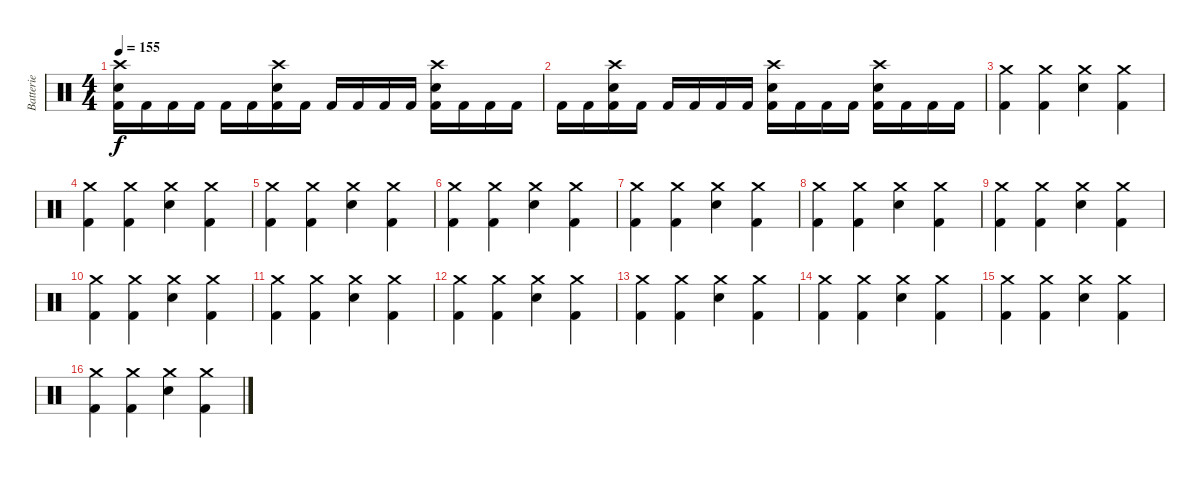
\track ("Batterie" "Batterie") {instrument percussion}
\staff {score}
\articulation defaults
\ts (4 4)
\tempo 155
\clef neutral
\ks c
("Crash high (hit)" "Electric Snare (hit)" "Kick (hit) 2").16{dy f} "Kick (hit) 2".16 "Kick (hit) 2".16 "Kick (hit) 2".16 "Kick (hit) 2".16 "Kick (hit) 2".16 ("Crash high (hit)" "Electric Snare (hit)" "Kick (hit) 2").16 "Kick (hit) 2".16 "Kick (hit) 2".16 "Kick (hit) 2".16 "Kick (hit) 2".16 "Kick (hit) 2".16 ("Crash high (hit)" "Electric Snare (hit)" "Kick (hit) 2").16 "Kick (hit) 2".16 "Kick (hit) 2".16 "Kick (hit) 2".16 |
"Kick (hit) 2".16 "Kick (hit) 2".16 ("Crash high (hit)" "Electric Snare (hit)" "Kick (hit) 2").16 "Kick (hit) 2".16 "Kick (hit) 2".16 "Kick (hit) 2".16 "Kick (hit) 2".16 "Kick (hit) 2".16 ("Crash high (hit)" "Electric Snare (hit)" "Kick (hit) 2").16 "Kick (hit) 2".16 "Kick (hit) 2".16 "Kick (hit) 2".16 ("Crash high (hit)" "Electric Snare (hit)" "Kick (hit) 2").16 "Kick (hit) 2".16 "Kick (hit) 2".16 "Kick (hit) 2".16 |
\section ("" "")
("Crash medium (hit)" "Kick (hit) 2").4 ("Crash medium (hit)" "Kick (hit) 2").4 ("Crash medium (hit)" "Electric Snare (hit)").4 ("Crash medium (hit)" "Kick (hit) 2").4 |
("Crash medium (hit)" "Kick (hit) 2").4 ("Crash medium (hit)" "Kick (hit) 2").4 ("Crash medium (hit)" "Electric Snare (hit)").4 ("Crash medium (hit)" "Kick (hit) 2").4 |
("Crash medium (hit)" "Kick (hit) 2").4 ("Crash medium (hit)" "Kick (hit) 2").4 ("Crash medium (hit)" "Electric Snare (hit)").4 ("Crash medium (hit)" "Kick (hit) 2").4 |
("Crash medium (hit)" "Kick (hit) 2").4 ("Crash medium (hit)" "Kick (hit) 2").4 ("Crash medium (hit)" "Electric Snare (hit)").4 ("Crash medium (hit)" "Kick (hit) 2").4 |
("Crash medium (hit)" "Kick (hit) 2").4 ("Crash medium (hit)" "Kick (hit) 2").4 ("Crash medium (hit)" "Electric Snare (hit)").4 ("Crash medium (hit)" "Kick (hit) 2").4 |
("Crash medium (hit)" "Kick (hit) 2").4 ("Crash medium (hit)" "Kick (hit) 2").4 ("Crash medium (hit)" "Electric Snare (hit)").4 ("Crash medium (hit)" "Kick (hit) 2").4 |
("Crash medium (hit)" "Kick (hit) 2").4 ("Crash medium (hit)" "Kick (hit) 2").4 ("Crash medium (hit)" "Electric Snare (hit)").4 ("Crash medium (hit)" "Kick (hit) 2").4 |
("Crash medium (hit)" "Kick (hit) 2").4 ("Crash medium (hit)" "Kick (hit) 2").4 ("Crash medium (hit)" "Electric Snare (hit)").4 ("Crash medium (hit)" "Kick (hit) 2").4 |
("Crash medium (hit)" "Kick (hit) 2").4 ("Crash medium (hit)" "Kick (hit) 2").4 ("Crash medium (hit)" "Electric Snare (hit)").4 ("Crash medium (hit)" "Kick (hit) 2").4 |
("Crash medium (hit)" "Kick (hit) 2").4 ("Crash medium (hit)" "Kick (hit) 2").4 ("Crash medium (hit)" "Electric Snare (hit)").4 ("Crash medium (hit)" "Kick (hit) 2").4 |
("Crash medium (hit)" "Kick (hit) 2").4 ("Crash medium (hit)" "Kick (hit) 2").4 ("Crash medium (hit)" "Electric Snare (hit)").4 ("Crash medium (hit)" "Kick (hit) 2").4 |
("Crash medium (hit)" "Kick (hit) 2").4 ("Crash medium (hit)" "Kick (hit) 2").4 ("Crash medium (hit)" "Electric Snare (hit)").4 ("Crash medium (hit)" "Kick (hit) 2").4 |
("Crash medium (hit)" "Kick (hit) 2").4 ("Crash medium (hit)" "Kick (hit) 2").4 ("Crash medium (hit)" "Electric Snare (hit)").4 ("Crash medium (hit)" "Kick (hit) 2").4 |
("Crash medium (hit)" "Kick (hit) 2").4 ("Crash medium (hit)" "Kick (hit) 2").4 ("Crash medium (hit)" "Electric Snare (hit)").4 ("Crash medium (hit)" "Kick (hit) 2").4
